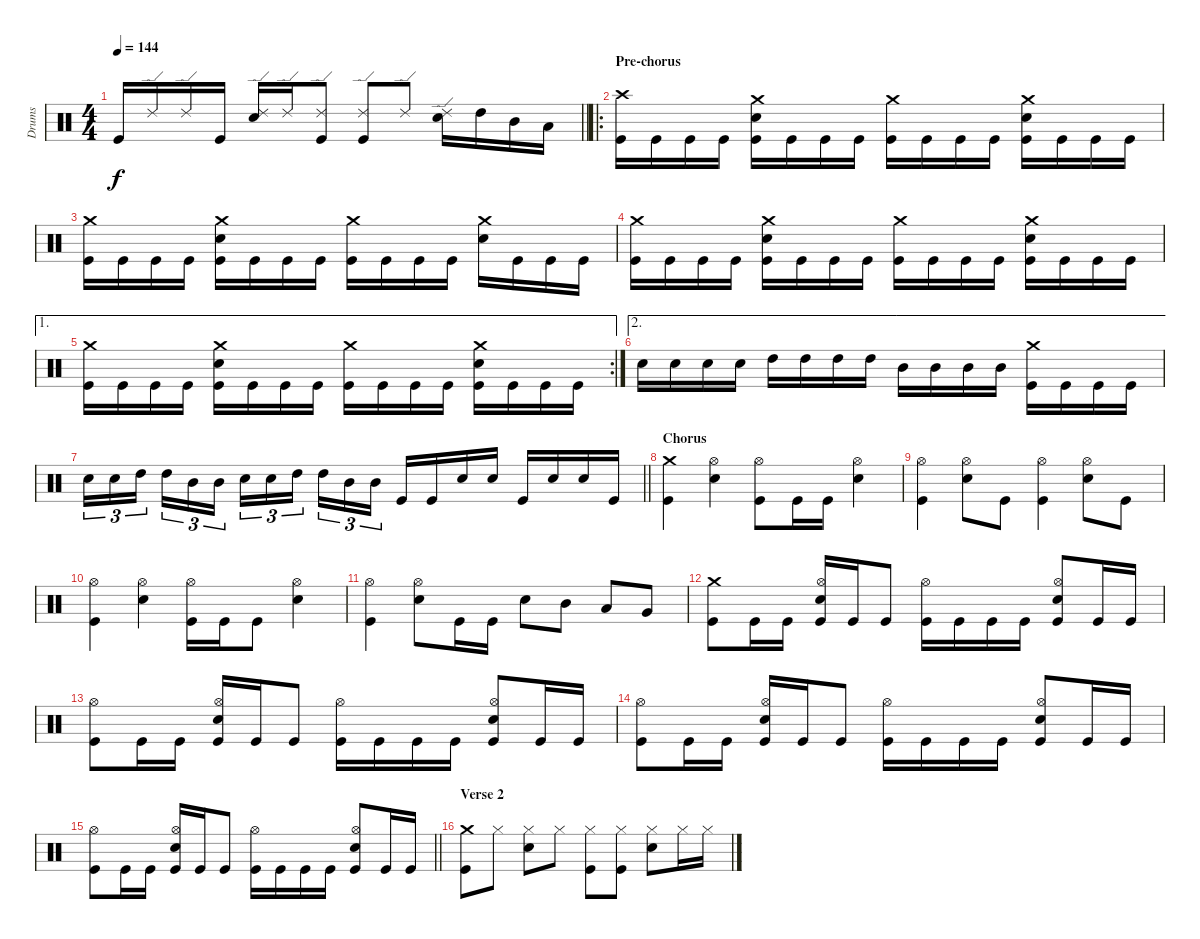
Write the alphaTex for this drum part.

\track ("Drums" "Drums") {instrument percussion}
\staff {score}
\articulation defaults
\ts (4 4)
\tempo 144
\clef neutral
\barLineRight lightlight
\ks c "Kick (hit)".16{dy f} "Ride (edge) 2".16 "Ride (edge) 2".16 "Kick (hit)".16
("Ride (edge) 2" "Snare (hit) 2").16 "Ride (edge) 2".16 ("Ride (edge) 2" "Kick (hit)").8 ("Ride (edge) 2" "Kick (hit)").8 "Ride (edge) 2".8 ("Ride (edge) 2" "Snare (hit) 2").16 "High Tom (hit)".16 "Mid Tom (hit)".16 "Low Tom (hit)".16 |
\ro
\section ("" "Pre-chorus")
("Crash high (hit)" "Kick (hit)").16 "Kick (hit)".16 "Kick (hit)".16 "Kick (hit)".16 ("Crash medium (hit)" "Snare (hit) 2" "Kick (hit)").16 "Kick (hit)".16 "Kick (hit)".16 "Kick (hit)".16 ("Crash medium (hit)" "Kick (hit)").16 "Kick (hit)".16 "Kick (hit)".16 "Kick (hit)".16 ("Crash medium (hit)" "Snare (hit) 2" "Kick (hit)").16 "Kick (hit)".16 "Kick (hit)".16 "Kick (hit)".16 |
("Crash medium (hit)" "Kick (hit)").16 "Kick (hit)".16 "Kick (hit)".16 "Kick (hit)".16 ("Crash medium (hit)" "Snare (hit) 2" "Kick (hit)").16 "Kick (hit)".16 "Kick (hit)".16 "Kick (hit)".16 ("Crash medium (hit)" "Kick (hit)").16 "Kick (hit)".16 "Kick (hit)".16 "Kick (hit)".16 ("Crash medium (hit)" "Snare (hit) 2").16 "Kick (hit)".16 "Kick (hit)".16 "Kick (hit)".16 |
("Crash medium (hit)" "Kick (hit)").16 "Kick (hit)".16 "Kick (hit)".16 "Kick (hit)".16 ("Crash medium (hit)" "Snare (hit) 2" "Kick (hit)").16 "Kick (hit)".16 "Kick (hit)".16 "Kick (hit)".16 ("Crash medium (hit)" "Kick (hit)").16 "Kick (hit)".16 "Kick (hit)".16 "Kick (hit)".16 ("Crash medium (hit)" "Snare (hit) 2" "Kick (hit)").16 "Kick (hit)".16 "Kick (hit)".16 "Kick (hit)".16 |
\ae 1
\rc 2
("Crash medium (hit)" "Kick (hit)").16 "Kick (hit)".16 "Kick (hit)".16 "Kick (hit)".16 ("Crash medium (hit)" "Snare (hit) 2" "Kick (hit)").16 "Kick (hit)".16 "Kick (hit)".16 "Kick (hit)".16 ("Crash medium (hit)" "Kick (hit)").16 "Kick (hit)".16 "Kick (hit)".16 "Kick (hit)".16 ("Crash medium (hit)" "Snare (hit) 2" "Kick (hit)").16 "Kick (hit)".16 "Kick (hit)".16 "Kick (hit)".16 |
\ae 2 "Snare (hit) 2".16 "Snare (hit) 2".16 "Snare (hit) 2".16 "Snare (hit) 2".16 "High Tom (hit)".16 "High Tom (hit)".16 "High Tom (hit)".16 "High Tom (hit)".16 "Mid Tom (hit)".16 "Mid Tom (hit)".16 "Mid Tom (hit)".16 "Mid Tom (hit)".16
("Crash medium (hit)" "Kick (hit)").16 "Kick (hit)".16 "Kick (hit)".16 "Kick (hit)".16 |
\barLineRight lightlight "Snare (hit) 2".16{tu (3 2)} "Snare (hit) 2".16{tu (3 2)} "High Tom (hit)".16{tu (3 2) beam splitsecondary} "High Tom (hit)".16{tu (3 2)} "Mid Tom (hit)".16{tu (3 2)} "Mid Tom (hit)".16{tu (3 2)} "Snare (hit) 2".16{tu (3 2)} "Snare (hit) 2".16{tu (3 2)} "High Tom (hit)".16{tu (3 2) beam splitsecondary} "High Tom (hit)".16{tu (3 2)} "Mid Tom (hit)".16{tu (3 2)} "Mid Tom (hit)".16{tu (3 2)} "Kick (hit)".16 "Kick (hit)".16 "Snare (hit) 2".16 "Snare (hit) 2".16 "Kick (hit)".16 "Snare (hit) 2".16 "Snare (hit) 2".16 "Kick (hit)".16
|
\section ("" "Chorus")
("Crash medium (hit)" "Kick (hit)").4 ("Hi-Hat (open)" "Snare (hit) 2").4 ("Hi-Hat (open)" "Kick (hit)").8 "Kick (hit)".16 "Kick (hit)".16 ("Hi-Hat (open)" "Snare (hit) 2").4 |
("Hi-Hat (open)" "Kick (hit)").4 ("Hi-Hat (open)" "Snare (hit) 2").8 "Kick (hit)".8 ("Hi-Hat (open)" "Kick (hit)").4 ("Hi-Hat (open)" "Snare (hit) 2").8 "Kick (hit)".8 |
("Hi-Hat (open)" "Kick (hit)").4 ("Hi-Hat (open)" "Snare (hit) 2").4 ("Hi-Hat (open)" "Kick (hit)").16 "Kick (hit)".16 "Kick (hit)".8 ("Hi-Hat (open)" "Snare (hit) 2").4 |
("Hi-Hat (open)" "Kick (hit)").4 ("Hi-Hat (open)" "Snare (hit) 2").8 "Kick (hit)".16 "Kick (hit)".16 "Snare (hit) 2".8 "Mid Tom (hit)".8 "Low Tom (hit)".8 "Very Low Tom (hit)".8 |
("Crash medium (hit)" "Kick (hit)").8 "Kick (hit)".16 "Kick (hit)".16 ("Hi-Hat (open)" "Electric Snare (hit)" "Kick (hit)").16 "Kick (hit)".16 "Kick (hit)".8 ("Hi-Hat (open)" "Kick (hit)").16 "Kick (hit)".16 "Kick (hit)".16 "Kick (hit)".16 ("Hi-Hat (open)" "Electric Snare (hit)" "Kick (hit)").8 "Kick (hit)".16 "Kick (hit)".16 |
("Hi-Hat (open)" "Kick (hit)").8 "Kick (hit)".16 "Kick (hit)".16 ("Hi-Hat (open)" "Electric Snare (hit)" "Kick (hit)").16 "Kick (hit)".16 "Kick (hit)".8 ("Hi-Hat (open)" "Kick (hit)").16 "Kick (hit)".16 "Kick (hit)".16 "Kick (hit)".16 ("Hi-Hat (open)" "Electric Snare (hit)" "Kick (hit)").8 "Kick (hit)".16 "Kick (hit)".16 |
("Hi-Hat (open)" "Kick (hit)").8 "Kick (hit)".16 "Kick (hit)".16 ("Hi-Hat (open)" "Electric Snare (hit)" "Kick (hit)").16 "Kick (hit)".16 "Kick (hit)".8 ("Hi-Hat (open)" "Kick (hit)").16 "Kick (hit)".16 "Kick (hit)".16 "Kick (hit)".16 ("Hi-Hat (open)" "Electric Snare (hit)" "Kick (hit)").8 "Kick (hit)".16 "Kick (hit)".16 |
\barLineRight lightlight
("Hi-Hat (open)" "Kick (hit)").8 "Kick (hit)".16 "Kick (hit)".16 ("Hi-Hat (open)" "Electric Snare (hit)" "Kick (hit)").16 "Kick (hit)".16 "Kick (hit)".8 ("Hi-Hat (open)" "Kick (hit)").16 "Kick (hit)".16 "Kick (hit)".16 "Kick (hit)".16 ("Hi-Hat (open)" "Electric Snare (hit)" "Kick (hit)").8 "Kick (hit)".16 "Kick (hit)".16 |
\section ("" "Verse 2")
("Crash medium (hit)" "Kick (hit)").8 "Hi-Hat (closed)".8 ("Hi-Hat (closed)" "Snare (hit) 2").8 "Hi-Hat (closed)".8 ("Hi-Hat (closed)" "Kick (hit)").8 ("Hi-Hat (closed)" "Kick (hit)").8 ("Hi-Hat (closed)" "Snare (hit) 2").8 "Hi-Hat (closed)".16 "Hi-Hat (closed)".16
